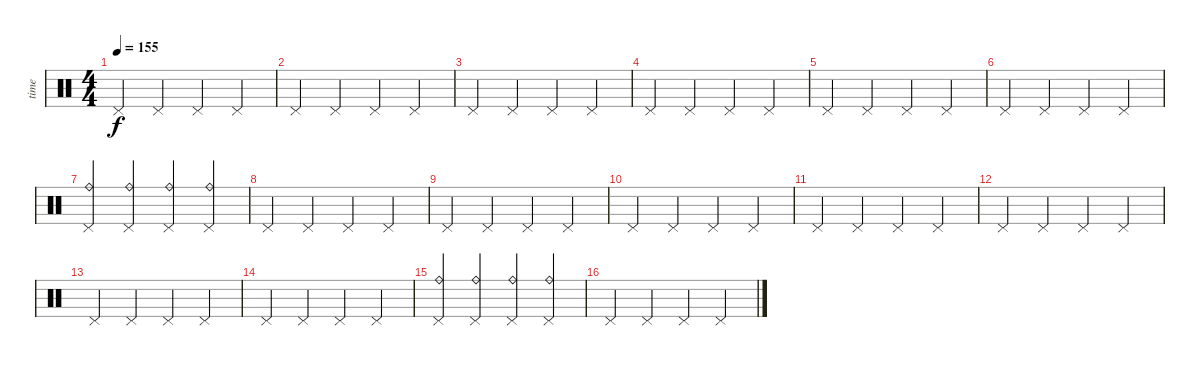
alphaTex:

\track ("time" "time") {instrument percussion}
\staff {score}
\articulation defaults
\ts (4 4)
\tempo 155
\clef neutral
\ks c "Pedal Hi-Hat (hit)".4{dy f} "Pedal Hi-Hat (hit)".4 "Pedal Hi-Hat (hit)".4 "Pedal Hi-Hat (hit)".4
|
"Pedal Hi-Hat (hit)".4 "Pedal Hi-Hat (hit)".4 "Pedal Hi-Hat (hit)".4 "Pedal Hi-Hat (hit)".4 |
"Pedal Hi-Hat (hit)".4 "Pedal Hi-Hat (hit)".4 "Pedal Hi-Hat (hit)".4 "Pedal Hi-Hat (hit)".4 |
"Pedal Hi-Hat (hit)".4 "Pedal Hi-Hat (hit)".4 "Pedal Hi-Hat (hit)".4 "Pedal Hi-Hat (hit)".4 |
"Pedal Hi-Hat (hit)".4 "Pedal Hi-Hat (hit)".4 "Pedal Hi-Hat (hit)".4 "Pedal Hi-Hat (hit)".4 |
"Pedal Hi-Hat (hit)".4 "Pedal Hi-Hat (hit)".4 "Pedal Hi-Hat (hit)".4 "Pedal Hi-Hat (hit)".4 |
("Pedal Hi-Hat (hit)" "Ride (bell)").4 ("Pedal Hi-Hat (hit)" "Ride (bell)").4 ("Pedal Hi-Hat (hit)" "Ride (bell)").4 ("Pedal Hi-Hat (hit)" "Ride (bell)").4 |
"Pedal Hi-Hat (hit)".4 "Pedal Hi-Hat (hit)".4 "Pedal Hi-Hat (hit)".4 "Pedal Hi-Hat (hit)".4 |
"Pedal Hi-Hat (hit)".4 "Pedal Hi-Hat (hit)".4 "Pedal Hi-Hat (hit)".4 "Pedal Hi-Hat (hit)".4 |
"Pedal Hi-Hat (hit)".4 "Pedal Hi-Hat (hit)".4 "Pedal Hi-Hat (hit)".4 "Pedal Hi-Hat (hit)".4 |
"Pedal Hi-Hat (hit)".4 "Pedal Hi-Hat (hit)".4 "Pedal Hi-Hat (hit)".4 "Pedal Hi-Hat (hit)".4 |
"Pedal Hi-Hat (hit)".4 "Pedal Hi-Hat (hit)".4 "Pedal Hi-Hat (hit)".4 "Pedal Hi-Hat (hit)".4 |
"Pedal Hi-Hat (hit)".4 "Pedal Hi-Hat (hit)".4 "Pedal Hi-Hat (hit)".4 "Pedal Hi-Hat (hit)".4 |
"Pedal Hi-Hat (hit)".4 "Pedal Hi-Hat (hit)".4 "Pedal Hi-Hat (hit)".4 "Pedal Hi-Hat (hit)".4 |
("Pedal Hi-Hat (hit)" "Ride (bell)").4 ("Pedal Hi-Hat (hit)" "Ride (bell)").4 ("Pedal Hi-Hat (hit)" "Ride (bell)").4 ("Pedal Hi-Hat (hit)" "Ride (bell)").4 |
"Pedal Hi-Hat (hit)".4 "Pedal Hi-Hat (hit)".4 "Pedal Hi-Hat (hit)".4 "Pedal Hi-Hat (hit)".4
